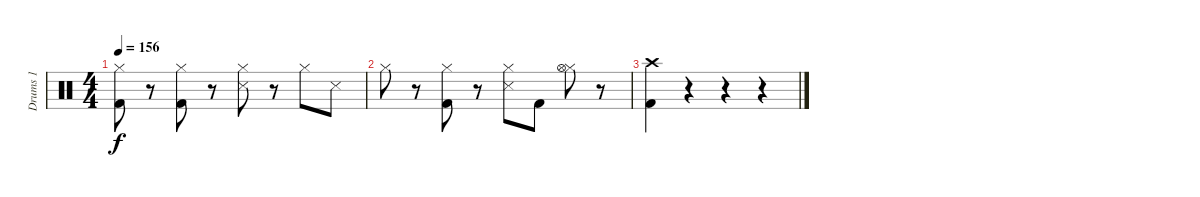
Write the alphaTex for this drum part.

\track ("Drums 1" "Drums 1") {instrument percussion}
\staff {score}
\articulation defaults
\ts (4 4)
\tempo 156
\clef neutral
\ks c
("Hi-Hat (closed)" "Kick (hit) 2").8{dy f} r.8 ("Hi-Hat (closed)" "Kick (hit) 2").8 r.8 ("Hi-Hat (closed)" "Snare (side stick) 3").8 r.8 "Hi-Hat (closed)".8 "Snare (side stick) 3".8 |
"Hi-Hat (closed)".8 r.8 ("Hi-Hat (closed)" "Kick (hit) 2").8 r.8 ("Hi-Hat (closed)" "Snare (side stick) 3").8 "Kick (hit) 2".8 ("Hi-Hat (closed)" "Hi-Hat (open)").8 r.8 |
("Crash high (hit)" "Kick (hit) 2").4 r.4 r.4 r.4
